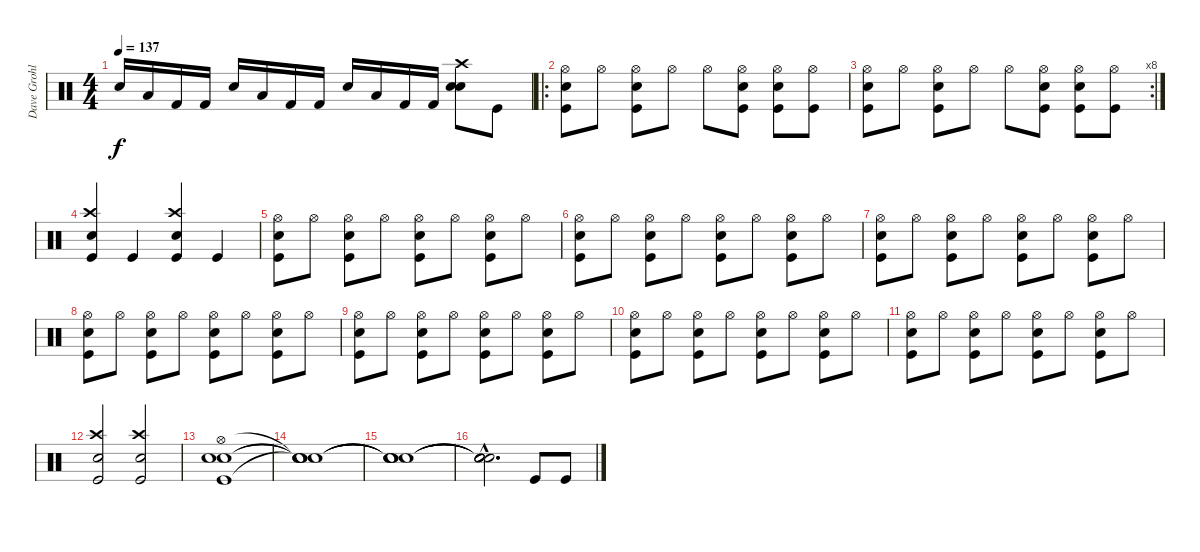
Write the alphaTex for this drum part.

\track ("Dave Grohl" "Dave Grohl") {instrument percussion}
\staff {score}
\articulation defaults
\ts (4 4)
\tempo 137
\clef neutral
\ks c "Snare (hit) 2".16{dy f} "Low Floor Tom (hit)".16 "Kick (hit) 2".16 "Kick (hit) 2".16 "Snare (hit) 2".16 "Low Floor Tom (hit)".16 "Kick (hit) 2".16 "Kick (hit) 2".16 "Snare (hit) 2".16 "Low Floor Tom (hit)".16 "Kick (hit) 2".16 "Kick (hit) 2".16
("Electric Snare (hit)" "Crash high (hit)" "Snare (hit) 2").8 "Kick (hit)".8 |
\ro
("Snare (hit) 2" "Hi-Hat (open)" "Kick (hit)").8 "Hi-Hat (open)".8 ("Electric Snare (hit)" "Hi-Hat (open)" "Kick (hit)").8 "Hi-Hat (open)".8 "Hi-Hat (open)".8 ("Electric Snare (hit)" "Hi-Hat (open)" "Kick (hit)").8 ("Electric Snare (hit)" "Hi-Hat (open)" "Kick (hit)").8 ("Hi-Hat (open)" "Kick (hit)").8 |
\rc 8
("Snare (hit) 2" "Hi-Hat (open)" "Kick (hit)").8 "Hi-Hat (open)".8 ("Electric Snare (hit)" "Hi-Hat (open)" "Kick (hit)").8 "Hi-Hat (open)".8 "Hi-Hat (open)".8 ("Electric Snare (hit)" "Hi-Hat (open)" "Kick (hit)").8 ("Electric Snare (hit)" "Hi-Hat (open)" "Kick (hit)").8 ("Hi-Hat (open)" "Kick (hit)").8 |
("Electric Snare (hit)" "Kick (hit)" "Crash high (hit)").4 "Kick (hit)".4 ("Electric Snare (hit)" "Kick (hit)" "Crash high (hit)").4 "Kick (hit)".4 |
("Electric Snare (hit)" "Kick (hit)" "Hi-Hat (open)").8 "Hi-Hat (open)".8 ("Electric Snare (hit)" "Kick (hit)" "Hi-Hat (open)").8 "Hi-Hat (open)".8 ("Electric Snare (hit)" "Kick (hit)" "Hi-Hat (open)").8 "Hi-Hat (open)".8 ("Electric Snare (hit)" "Kick (hit)" "Hi-Hat (open)").8 "Hi-Hat (open)".8 |
("Electric Snare (hit)" "Kick (hit)" "Hi-Hat (open)").8 "Hi-Hat (open)".8 ("Electric Snare (hit)" "Kick (hit)" "Hi-Hat (open)").8 "Hi-Hat (open)".8 ("Electric Snare (hit)" "Kick (hit)" "Hi-Hat (open)").8 "Hi-Hat (open)".8 ("Electric Snare (hit)" "Kick (hit)" "Hi-Hat (open)").8 "Hi-Hat (open)".8 |
("Electric Snare (hit)" "Kick (hit)" "Hi-Hat (open)").8 "Hi-Hat (open)".8 ("Electric Snare (hit)" "Kick (hit)" "Hi-Hat (open)").8 "Hi-Hat (open)".8 ("Electric Snare (hit)" "Kick (hit)" "Hi-Hat (open)").8 "Hi-Hat (open)".8 ("Electric Snare (hit)" "Kick (hit)" "Hi-Hat (open)").8 "Hi-Hat (open)".8 |
("Electric Snare (hit)" "Kick (hit)" "Hi-Hat (open)").8 "Hi-Hat (open)".8 ("Electric Snare (hit)" "Kick (hit)" "Hi-Hat (open)").8 "Hi-Hat (open)".8 ("Electric Snare (hit)" "Kick (hit)" "Hi-Hat (open)").8 "Hi-Hat (open)".8 ("Electric Snare (hit)" "Kick (hit)" "Hi-Hat (open)").8 "Hi-Hat (open)".8 |
("Electric Snare (hit)" "Kick (hit)" "Hi-Hat (open)").8 "Hi-Hat (open)".8 ("Electric Snare (hit)" "Kick (hit)" "Hi-Hat (open)").8 "Hi-Hat (open)".8 ("Electric Snare (hit)" "Kick (hit)" "Hi-Hat (open)").8 "Hi-Hat (open)".8 ("Electric Snare (hit)" "Kick (hit)" "Hi-Hat (open)").8 "Hi-Hat (open)".8 |
("Electric Snare (hit)" "Kick (hit)" "Hi-Hat (open)").8 "Hi-Hat (open)".8 ("Electric Snare (hit)" "Kick (hit)" "Hi-Hat (open)").8 "Hi-Hat (open)".8 ("Electric Snare (hit)" "Kick (hit)" "Hi-Hat (open)").8 "Hi-Hat (open)".8 ("Electric Snare (hit)" "Kick (hit)" "Hi-Hat (open)").8 "Hi-Hat (open)".8 |
("Electric Snare (hit)" "Kick (hit)" "Hi-Hat (open)").8 "Hi-Hat (open)".8 ("Electric Snare (hit)" "Kick (hit)" "Hi-Hat (open)").8 "Hi-Hat (open)".8 ("Electric Snare (hit)" "Kick (hit)" "Hi-Hat (open)").8 "Hi-Hat (open)".8 ("Electric Snare (hit)" "Kick (hit)" "Hi-Hat (open)").8 "Hi-Hat (open)".8 |
("Electric Snare (hit)" "Crash high (hit)" "Kick (hit)").2 ("Electric Snare (hit)" "Crash high (hit)" "Kick (hit)").2 |
("Electric Snare (hit)" "Snare (hit) 2" "Hi-Hat (open)" "Kick (hit)").1 |
("Snare (hit)"{t} "Snare (hit)"{t} "Snare (hit)"{t} "Snare (hit)"{t}).1 |
("Snare (hit)"{t} "Snare (hit)"{t} "Snare (hit)"{t} "Snare (hit)"{t}).1 |
("Snare (hit)"{hac t} "Snare (hit)"{hac t} "Snare (hit)"{hac t} "Snare (hit)"{hac t}).2{d} "Kick (hit)".8 "Kick (hit)".8
